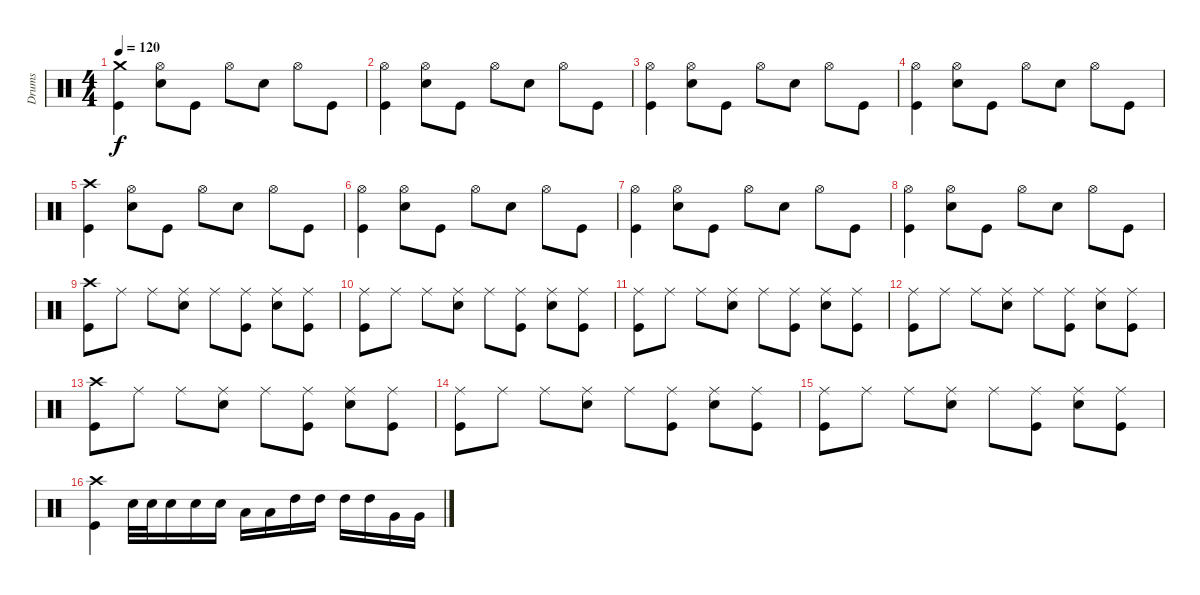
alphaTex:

\track ("Drums" "Drums") {instrument percussion}
\staff {score}
\articulation defaults
\ts (4 4)
\tempo 120
\clef neutral
\ks c
("Kick (hit)" "Crash medium (hit)").4{dy f} ("Snare (hit) 2" "Hi-Hat (open)").8 "Kick (hit)".8 "Hi-Hat (open)".8 "Snare (hit) 2".8 "Hi-Hat (open)".8 "Kick (hit)".8 |
("Kick (hit)" "Hi-Hat (open)").4 ("Snare (hit) 2" "Hi-Hat (open)").8 "Kick (hit)".8 "Hi-Hat (open)".8 "Snare (hit) 2".8 "Hi-Hat (open)".8 "Kick (hit)".8 |
("Kick (hit)" "Hi-Hat (open)").4 ("Snare (hit) 2" "Hi-Hat (open)").8 "Kick (hit)".8 "Hi-Hat (open)".8 "Snare (hit) 2".8 "Hi-Hat (open)".8 "Kick (hit)".8 |
("Kick (hit)" "Hi-Hat (open)").4 ("Snare (hit) 2" "Hi-Hat (open)").8 "Kick (hit)".8 "Hi-Hat (open)".8 "Snare (hit) 2".8 "Hi-Hat (open)".8 "Kick (hit)".8 |
("Kick (hit)" "Crash high (hit)").4 ("Snare (hit) 2" "Hi-Hat (open)").8 "Kick (hit)".8 "Hi-Hat (open)".8 "Snare (hit) 2".8 "Hi-Hat (open)".8 "Kick (hit)".8 |
("Kick (hit)" "Hi-Hat (open)").4 ("Snare (hit) 2" "Hi-Hat (open)").8 "Kick (hit)".8 "Hi-Hat (open)".8 "Snare (hit) 2".8 "Hi-Hat (open)".8 "Kick (hit)".8 |
("Kick (hit)" "Hi-Hat (open)").4 ("Snare (hit) 2" "Hi-Hat (open)").8 "Kick (hit)".8 "Hi-Hat (open)".8 "Snare (hit) 2".8 "Hi-Hat (open)".8 "Kick (hit)".8 |
("Kick (hit)" "Hi-Hat (open)").4 ("Snare (hit) 2" "Hi-Hat (open)").8 "Kick (hit)".8 "Hi-Hat (open)".8 "Snare (hit) 2".8 "Hi-Hat (open)".8 "Kick (hit)".8 |
("Kick (hit)" "Crash high (hit)").8 "Ride (middle)".8 "Ride (middle)".8 ("Snare (hit) 2" "Ride (middle)").8 "Ride (middle)".8 ("Kick (hit)" "Ride (middle)").8 ("Snare (hit) 2" "Ride (middle)").8 ("Kick (hit)" "Ride (middle)").8 |
("Kick (hit)" "Ride (middle)").8 "Ride (middle)".8 "Ride (middle)".8 ("Snare (hit) 2" "Ride (middle)").8 "Ride (middle)".8 ("Kick (hit)" "Ride (middle)").8 ("Snare (hit) 2" "Ride (middle)").8 ("Kick (hit)" "Ride (middle)").8 |
("Kick (hit)" "Ride (middle)").8 "Ride (middle)".8 "Ride (middle)".8 ("Snare (hit) 2" "Ride (middle)").8 "Ride (middle)".8 ("Kick (hit)" "Ride (middle)").8 ("Snare (hit) 2" "Ride (middle)").8 ("Kick (hit)" "Ride (middle)").8 |
("Kick (hit)" "Ride (middle)").8 "Ride (middle)".8 "Ride (middle)".8 ("Snare (hit) 2" "Ride (middle)").8 "Ride (middle)".8 ("Kick (hit)" "Ride (middle)").8 ("Snare (hit) 2" "Ride (middle)").8 ("Kick (hit)" "Ride (middle)").8 |
("Kick (hit)" "Crash high (hit)").8 "Ride (middle)".8 "Ride (middle)".8 ("Snare (hit) 2" "Ride (middle)").8 "Ride (middle)".8 ("Kick (hit)" "Ride (middle)").8 ("Snare (hit) 2" "Ride (middle)").8 ("Kick (hit)" "Ride (middle)").8 |
("Kick (hit)" "Ride (middle)").8 "Ride (middle)".8 "Ride (middle)".8 ("Snare (hit) 2" "Ride (middle)").8 "Ride (middle)".8 ("Kick (hit)" "Ride (middle)").8 ("Snare (hit) 2" "Ride (middle)").8 ("Kick (hit)" "Ride (middle)").8 |
("Kick (hit)" "Ride (middle)").8 "Ride (middle)".8 "Ride (middle)".8 ("Snare (hit) 2" "Ride (middle)").8 "Ride (middle)".8 ("Kick (hit)" "Ride (middle)").8 ("Snare (hit) 2" "Ride (middle)").8 ("Kick (hit)" "Ride (middle)").8 |
("Kick (hit)" "Crash high (hit)").4 "Snare (hit) 2".32 "Snare (hit) 2".32 "Snare (hit) 2".16 "Snare (hit) 2".16 "Snare (hit) 2".16 "Low Tom (hit)".16 "Low Tom (hit)".16 "High Tom (hit)".16 "High Tom (hit)".16 "High Tom (hit)".16 "High Tom (hit)".16 "Very Low Tom (hit)".16 "Very Low Tom (hit)".16
